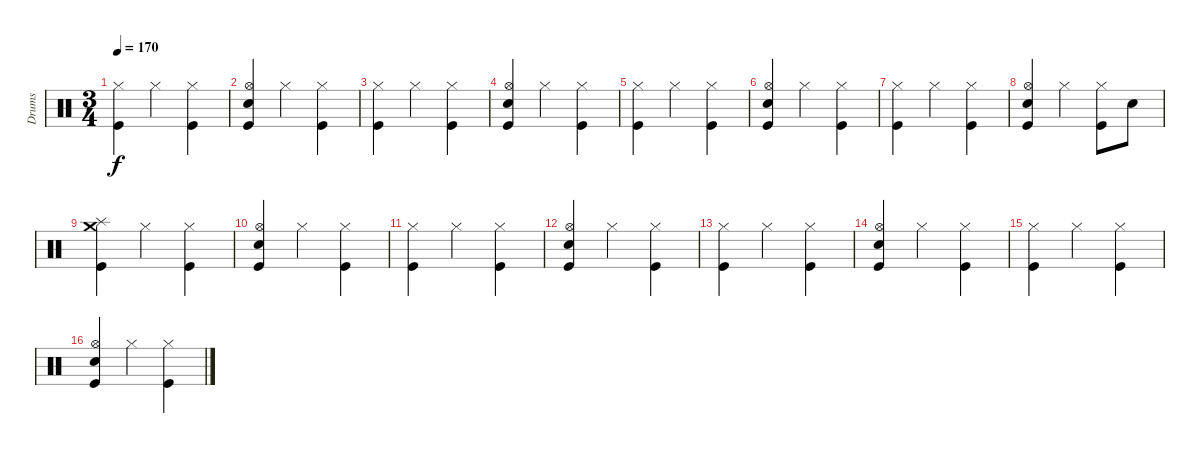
\track ("Drums" "Drums") {instrument percussion}
\staff {score}
\articulation defaults
\ts (3 4)
\tempo 170
\clef neutral
\ks c
("Hi-Hat (closed)" "Kick (hit)").4{dy f} "Hi-Hat (closed)".4 ("Hi-Hat (closed)" "Kick (hit)").4 |
("Hi-Hat (open)" "Electric Snare (hit)" "Kick (hit)").4 "Hi-Hat (closed)".4 ("Hi-Hat (closed)" "Kick (hit)").4 |
("Hi-Hat (closed)" "Kick (hit)").4 "Hi-Hat (closed)".4 ("Hi-Hat (closed)" "Kick (hit)").4 |
("Hi-Hat (open)" "Electric Snare (hit)" "Kick (hit)").4 "Hi-Hat (closed)".4 ("Hi-Hat (closed)" "Kick (hit)").4 |
("Hi-Hat (closed)" "Kick (hit)").4 "Hi-Hat (closed)".4 ("Hi-Hat (closed)" "Kick (hit)").4 |
("Hi-Hat (open)" "Electric Snare (hit)" "Kick (hit)").4 "Hi-Hat (closed)".4 ("Hi-Hat (closed)" "Kick (hit)").4 |
("Hi-Hat (closed)" "Kick (hit)").4 "Hi-Hat (closed)".4 ("Hi-Hat (closed)" "Kick (hit)").4 |
("Hi-Hat (open)" "Electric Snare (hit)" "Kick (hit)").4 "Hi-Hat (closed)".4 ("Hi-Hat (closed)" "Kick (hit)").8 "Electric Snare (hit)".8 |
("Splash (hit)" "Crash medium (hit)" "Kick (hit)").4 "Hi-Hat (closed)".4 ("Hi-Hat (closed)" "Kick (hit)").4 |
("Hi-Hat (open)" "Electric Snare (hit)" "Kick (hit)").4 "Hi-Hat (closed)".4 ("Hi-Hat (closed)" "Kick (hit)").4 |
("Hi-Hat (closed)" "Kick (hit)").4 "Hi-Hat (closed)".4 ("Hi-Hat (closed)" "Kick (hit)").4 |
("Hi-Hat (open)" "Electric Snare (hit)" "Kick (hit)").4 "Hi-Hat (closed)".4 ("Hi-Hat (closed)" "Kick (hit)").4 |
("Hi-Hat (closed)" "Kick (hit)").4 "Hi-Hat (closed)".4 ("Hi-Hat (closed)" "Kick (hit)").4 |
("Hi-Hat (open)" "Electric Snare (hit)" "Kick (hit)").4 "Hi-Hat (closed)".4 ("Hi-Hat (closed)" "Kick (hit)").4 |
("Hi-Hat (closed)" "Kick (hit)").4 "Hi-Hat (closed)".4 ("Hi-Hat (closed)" "Kick (hit)").4 |
("Hi-Hat (open)" "Electric Snare (hit)" "Kick (hit)").4 "Hi-Hat (closed)".4 ("Hi-Hat (closed)" "Kick (hit)").4
